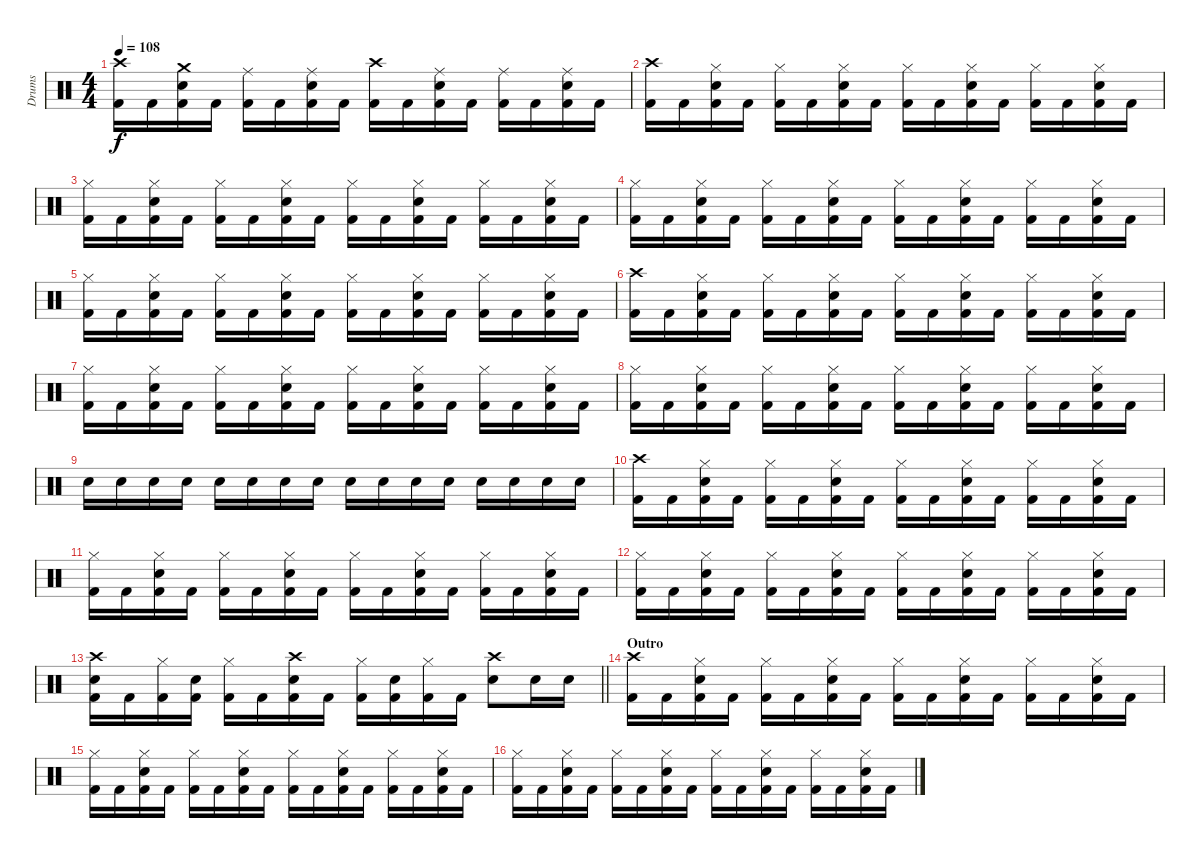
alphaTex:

\track ("Drums" "Drums") {instrument percussion}
\staff {score}
\articulation defaults
\ts (4 4)
\tempo 108
\clef neutral
\ks c
("Crash high (hit)" "Kick (hit) 2").16{dy f} "Kick (hit) 2".16 ("Crash medium (hit)" "Snare (hit) 2" "Kick (hit) 2").16 "Kick (hit) 2".16 ("Ride (middle)" "Kick (hit) 2").16 "Kick (hit) 2".16 ("Ride (middle)" "Snare (hit) 2" "Kick (hit) 2").16 "Kick (hit) 2".16 ("Crash high (hit)" "Kick (hit) 2").16 "Kick (hit) 2".16 ("Ride (middle)" "Snare (hit) 2" "Kick (hit) 2").16 "Kick (hit) 2".16 ("Ride (middle)" "Kick (hit) 2").16 "Kick (hit) 2".16 ("Ride (middle)" "Snare (hit) 2" "Kick (hit) 2").16 "Kick (hit) 2".16 |
("Crash high (hit)" "Kick (hit) 2").16 "Kick (hit) 2".16 ("Hi-Hat (closed)" "Snare (hit) 2" "Kick (hit) 2").16 "Kick (hit) 2".16 ("Hi-Hat (closed)" "Kick (hit) 2").16 "Kick (hit) 2".16 ("Hi-Hat (closed)" "Snare (hit) 2" "Kick (hit) 2").16 "Kick (hit) 2".16 ("Hi-Hat (closed)" "Kick (hit) 2").16 "Kick (hit) 2".16 ("Hi-Hat (closed)" "Snare (hit) 2" "Kick (hit) 2").16 "Kick (hit) 2".16 ("Hi-Hat (closed)" "Kick (hit) 2").16 "Kick (hit) 2".16 ("Hi-Hat (closed)" "Snare (hit) 2" "Kick (hit) 2").16 "Kick (hit) 2".16 |
("Hi-Hat (closed)" "Kick (hit) 2").16 "Kick (hit) 2".16 ("Hi-Hat (closed)" "Snare (hit) 2" "Kick (hit) 2").16 "Kick (hit) 2".16 ("Hi-Hat (closed)" "Kick (hit) 2").16 "Kick (hit) 2".16 ("Hi-Hat (closed)" "Snare (hit) 2" "Kick (hit) 2").16 "Kick (hit) 2".16 ("Hi-Hat (closed)" "Kick (hit) 2").16 "Kick (hit) 2".16 ("Hi-Hat (closed)" "Snare (hit) 2" "Kick (hit) 2").16 "Kick (hit) 2".16 ("Hi-Hat (closed)" "Kick (hit) 2").16 "Kick (hit) 2".16 ("Hi-Hat (closed)" "Snare (hit) 2" "Kick (hit) 2").16 "Kick (hit) 2".16 |
("Hi-Hat (closed)" "Kick (hit) 2").16 "Kick (hit) 2".16 ("Hi-Hat (closed)" "Snare (hit) 2" "Kick (hit) 2").16 "Kick (hit) 2".16 ("Hi-Hat (closed)" "Kick (hit) 2").16 "Kick (hit) 2".16 ("Hi-Hat (closed)" "Snare (hit) 2" "Kick (hit) 2").16 "Kick (hit) 2".16 ("Hi-Hat (closed)" "Kick (hit) 2").16 "Kick (hit) 2".16 ("Hi-Hat (closed)" "Snare (hit) 2" "Kick (hit) 2").16 "Kick (hit) 2".16 ("Hi-Hat (closed)" "Kick (hit) 2").16 "Kick (hit) 2".16 ("Hi-Hat (closed)" "Snare (hit) 2" "Kick (hit) 2").16 "Kick (hit) 2".16 |
("Hi-Hat (closed)" "Kick (hit) 2").16 "Kick (hit) 2".16 ("Hi-Hat (closed)" "Snare (hit) 2" "Kick (hit) 2").16 "Kick (hit) 2".16 ("Hi-Hat (closed)" "Kick (hit) 2").16 "Kick (hit) 2".16 ("Hi-Hat (closed)" "Snare (hit) 2" "Kick (hit) 2").16 "Kick (hit) 2".16 ("Hi-Hat (closed)" "Kick (hit) 2").16 "Kick (hit) 2".16 ("Hi-Hat (closed)" "Snare (hit) 2" "Kick (hit) 2").16 "Kick (hit) 2".16 ("Hi-Hat (closed)" "Kick (hit) 2").16 "Kick (hit) 2".16 ("Hi-Hat (closed)" "Snare (hit) 2" "Kick (hit) 2").16 "Kick (hit) 2".16 |
("Crash high (hit)" "Kick (hit) 2").16 "Kick (hit) 2".16 ("Hi-Hat (closed)" "Snare (hit) 2" "Kick (hit) 2").16 "Kick (hit) 2".16 ("Hi-Hat (closed)" "Kick (hit) 2").16 "Kick (hit) 2".16 ("Hi-Hat (closed)" "Snare (hit) 2" "Kick (hit) 2").16 "Kick (hit) 2".16 ("Hi-Hat (closed)" "Kick (hit) 2").16 "Kick (hit) 2".16 ("Hi-Hat (closed)" "Snare (hit) 2" "Kick (hit) 2").16 "Kick (hit) 2".16 ("Hi-Hat (closed)" "Kick (hit) 2").16 "Kick (hit) 2".16 ("Hi-Hat (closed)" "Snare (hit) 2" "Kick (hit) 2").16 "Kick (hit) 2".16 |
("Hi-Hat (closed)" "Kick (hit) 2").16 "Kick (hit) 2".16 ("Hi-Hat (closed)" "Snare (hit) 2" "Kick (hit) 2").16 "Kick (hit) 2".16 ("Hi-Hat (closed)" "Kick (hit) 2").16 "Kick (hit) 2".16 ("Hi-Hat (closed)" "Snare (hit) 2" "Kick (hit) 2").16 "Kick (hit) 2".16 ("Hi-Hat (closed)" "Kick (hit) 2").16 "Kick (hit) 2".16 ("Hi-Hat (closed)" "Snare (hit) 2" "Kick (hit) 2").16 "Kick (hit) 2".16 ("Hi-Hat (closed)" "Kick (hit) 2").16 "Kick (hit) 2".16 ("Hi-Hat (closed)" "Snare (hit) 2" "Kick (hit) 2").16 "Kick (hit) 2".16 |
("Hi-Hat (closed)" "Kick (hit) 2").16 "Kick (hit) 2".16 ("Hi-Hat (closed)" "Snare (hit) 2" "Kick (hit) 2").16 "Kick (hit) 2".16 ("Hi-Hat (closed)" "Kick (hit) 2").16 "Kick (hit) 2".16 ("Hi-Hat (closed)" "Snare (hit) 2" "Kick (hit) 2").16 "Kick (hit) 2".16 ("Hi-Hat (closed)" "Kick (hit) 2").16 "Kick (hit) 2".16 ("Hi-Hat (closed)" "Snare (hit) 2" "Kick (hit) 2").16 "Kick (hit) 2".16 ("Hi-Hat (closed)" "Kick (hit) 2").16 "Kick (hit) 2".16 ("Hi-Hat (closed)" "Snare (hit) 2" "Kick (hit) 2").16 "Kick (hit) 2".16 |
"Snare (hit) 2".16 "Snare (hit) 2".16 "Snare (hit) 2".16 "Snare (hit) 2".16 "Snare (hit) 2".16 "Snare (hit) 2".16 "Snare (hit) 2".16 "Snare (hit) 2".16 "Snare (hit) 2".16 "Snare (hit) 2".16 "Snare (hit) 2".16 "Snare (hit) 2".16 "Snare (hit) 2".16 "Snare (hit) 2".16 "Snare (hit) 2".16 "Snare (hit) 2".16 |
("Crash high (hit)" "Kick (hit) 2").16 "Kick (hit) 2".16 ("Hi-Hat (closed)" "Snare (hit) 2" "Kick (hit) 2").16 "Kick (hit) 2".16 ("Hi-Hat (closed)" "Kick (hit) 2").16 "Kick (hit) 2".16 ("Hi-Hat (closed)" "Snare (hit) 2" "Kick (hit) 2").16 "Kick (hit) 2".16 ("Hi-Hat (closed)" "Kick (hit) 2").16 "Kick (hit) 2".16 ("Hi-Hat (closed)" "Snare (hit) 2" "Kick (hit) 2").16 "Kick (hit) 2".16 ("Hi-Hat (closed)" "Kick (hit) 2").16 "Kick (hit) 2".16 ("Hi-Hat (closed)" "Snare (hit) 2" "Kick (hit) 2").16 "Kick (hit) 2".16 |
("Hi-Hat (closed)" "Kick (hit) 2").16 "Kick (hit) 2".16 ("Hi-Hat (closed)" "Snare (hit) 2" "Kick (hit) 2").16 "Kick (hit) 2".16 ("Hi-Hat (closed)" "Kick (hit) 2").16 "Kick (hit) 2".16 ("Hi-Hat (closed)" "Snare (hit) 2" "Kick (hit) 2").16 "Kick (hit) 2".16 ("Hi-Hat (closed)" "Kick (hit) 2").16 "Kick (hit) 2".16 ("Hi-Hat (closed)" "Snare (hit) 2" "Kick (hit) 2").16 "Kick (hit) 2".16 ("Hi-Hat (closed)" "Kick (hit) 2").16 "Kick (hit) 2".16 ("Hi-Hat (closed)" "Snare (hit) 2" "Kick (hit) 2").16 "Kick (hit) 2".16 |
("Hi-Hat (closed)" "Kick (hit) 2").16 "Kick (hit) 2".16 ("Hi-Hat (closed)" "Snare (hit) 2" "Kick (hit) 2").16 "Kick (hit) 2".16 ("Hi-Hat (closed)" "Kick (hit) 2").16 "Kick (hit) 2".16 ("Hi-Hat (closed)" "Snare (hit) 2" "Kick (hit) 2").16 "Kick (hit) 2".16 ("Hi-Hat (closed)" "Kick (hit) 2").16 "Kick (hit) 2".16 ("Hi-Hat (closed)" "Snare (hit) 2" "Kick (hit) 2").16 "Kick (hit) 2".16 ("Hi-Hat (closed)" "Kick (hit) 2").16 "Kick (hit) 2".16 ("Hi-Hat (closed)" "Snare (hit) 2" "Kick (hit) 2").16 "Kick (hit) 2".16 |
\barLineRight lightlight
("Crash high (hit)" "Snare (hit) 2" "Kick (hit) 2").16 "Kick (hit) 2".16 ("Hi-Hat (closed)" "Kick (hit) 2").16 ("Snare (hit) 2" "Kick (hit) 2").16 ("Hi-Hat (closed)" "Kick (hit) 2").16 "Kick (hit) 2".16 ("Crash high (hit)" "Snare (hit) 2" "Kick (hit) 2").16 "Kick (hit) 2".16 ("Hi-Hat (closed)" "Kick (hit) 2").16 ("Snare (hit) 2" "Kick (hit) 2").16 ("Hi-Hat (closed)" "Kick (hit) 2").16 "Kick (hit) 2".16 ("Crash high (hit)" "Snare (hit) 2").8 "Snare (hit) 2".16 "Snare (hit) 2".16 |
\section ("" "Outro")
("Crash high (hit)" "Kick (hit) 2").16 "Kick (hit) 2".16 ("Hi-Hat (closed)" "Snare (hit) 2" "Kick (hit) 2").16 "Kick (hit) 2".16 ("Hi-Hat (closed)" "Kick (hit) 2").16 "Kick (hit) 2".16 ("Hi-Hat (closed)" "Snare (hit) 2" "Kick (hit) 2").16 "Kick (hit) 2".16 ("Hi-Hat (closed)" "Kick (hit) 2").16 "Kick (hit) 2".16 ("Hi-Hat (closed)" "Snare (hit) 2" "Kick (hit) 2").16 "Kick (hit) 2".16 ("Hi-Hat (closed)" "Kick (hit) 2").16 "Kick (hit) 2".16 ("Hi-Hat (closed)" "Snare (hit) 2" "Kick (hit) 2").16 "Kick (hit) 2".16 |
("Hi-Hat (closed)" "Kick (hit) 2").16 "Kick (hit) 2".16 ("Hi-Hat (closed)" "Snare (hit) 2" "Kick (hit) 2").16 "Kick (hit) 2".16 ("Hi-Hat (closed)" "Kick (hit) 2").16 "Kick (hit) 2".16 ("Hi-Hat (closed)" "Snare (hit) 2" "Kick (hit) 2").16 "Kick (hit) 2".16 ("Hi-Hat (closed)" "Kick (hit) 2").16 "Kick (hit) 2".16 ("Hi-Hat (closed)" "Snare (hit) 2" "Kick (hit) 2").16 "Kick (hit) 2".16 ("Hi-Hat (closed)" "Kick (hit) 2").16 "Kick (hit) 2".16 ("Hi-Hat (closed)" "Snare (hit) 2" "Kick (hit) 2").16 "Kick (hit) 2".16 |
("Hi-Hat (closed)" "Kick (hit) 2").16 "Kick (hit) 2".16 ("Hi-Hat (closed)" "Snare (hit) 2" "Kick (hit) 2").16 "Kick (hit) 2".16 ("Hi-Hat (closed)" "Kick (hit) 2").16 "Kick (hit) 2".16 ("Hi-Hat (closed)" "Snare (hit) 2" "Kick (hit) 2").16 "Kick (hit) 2".16 ("Hi-Hat (closed)" "Kick (hit) 2").16 "Kick (hit) 2".16 ("Hi-Hat (closed)" "Snare (hit) 2" "Kick (hit) 2").16 "Kick (hit) 2".16 ("Hi-Hat (closed)" "Kick (hit) 2").16 "Kick (hit) 2".16 ("Hi-Hat (closed)" "Snare (hit) 2" "Kick (hit) 2").16 "Kick (hit) 2".16
